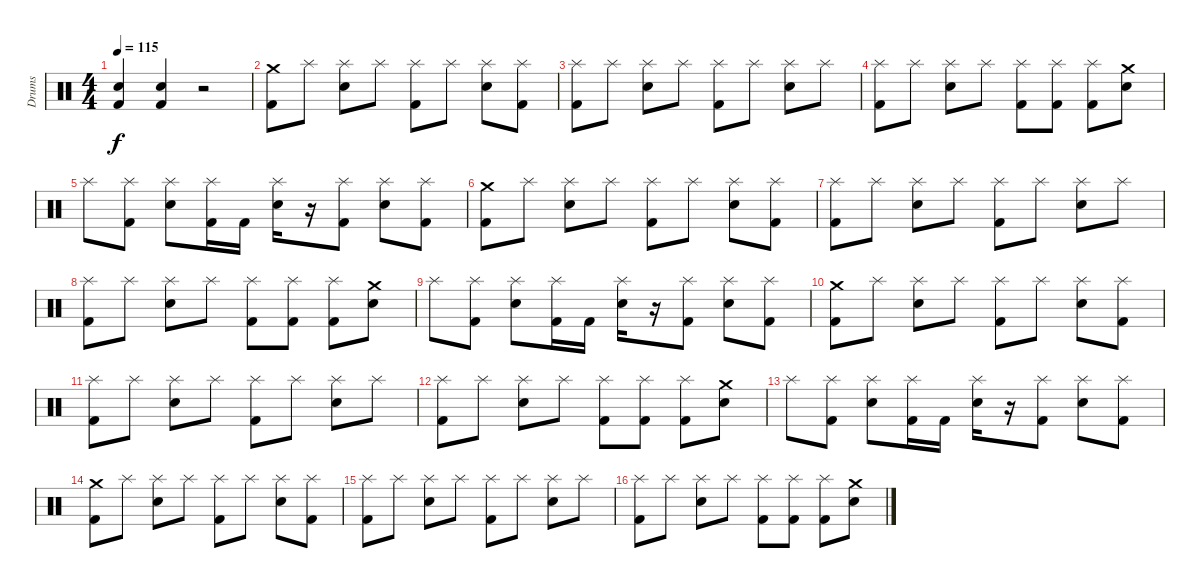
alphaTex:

\track ("Drums" "Drums") {instrument percussion}
\staff {score}
\articulation defaults
\ts (4 4)
\tempo 115
\clef neutral
\ks c
("Snare (hit) 2" "Kick (hit) 2").4{dy f} ("Snare (hit) 2" "Kick (hit) 2").4 r.2 |
("Crash medium (hit)" "Kick (hit) 2").8 "Splash (hit)".8 ("Splash (hit)" "Snare (hit) 2").8 "Splash (hit)".8 ("Splash (hit)" "Kick (hit) 2").8 "Splash (hit)".8 ("Splash (hit)" "Snare (hit) 2").8 ("Splash (hit)" "Kick (hit) 2").8 |
("Splash (hit)" "Kick (hit) 2").8 "Splash (hit)".8 ("Splash (hit)" "Snare (hit) 2").8 "Splash (hit)".8 ("Splash (hit)" "Kick (hit) 2").8 "Splash (hit)".8 ("Splash (hit)" "Snare (hit) 2").8 "Splash (hit)".8 |
("Splash (hit)" "Kick (hit) 2").8 "Splash (hit)".8 ("Splash (hit)" "Snare (hit) 2").8 "Splash (hit)".8 ("Splash (hit)" "Kick (hit) 2").8 ("Splash (hit)" "Kick (hit) 2").8 ("Splash (hit)" "Kick (hit) 2").8 ("Crash medium (hit)" "Snare (hit) 2").8 |
"Splash (hit)".8 ("Splash (hit)" "Kick (hit) 2").8 ("Splash (hit)" "Snare (hit) 2").8 ("Splash (hit)" "Kick (hit) 2").16 "Kick (hit) 2".16 ("Splash (hit)" "Snare (hit) 2").16 r.16 ("Splash (hit)" "Kick (hit) 2").8 ("Splash (hit)" "Snare (hit) 2").8 ("Splash (hit)" "Kick (hit) 2").8 |
("Crash medium (hit)" "Kick (hit) 2").8 "Splash (hit)".8 ("Splash (hit)" "Snare (hit) 2").8 "Splash (hit)".8 ("Splash (hit)" "Kick (hit) 2").8 "Splash (hit)".8 ("Splash (hit)" "Snare (hit) 2").8 ("Splash (hit)" "Kick (hit) 2").8 |
("Splash (hit)" "Kick (hit) 2").8 "Splash (hit)".8 ("Splash (hit)" "Snare (hit) 2").8 "Splash (hit)".8 ("Splash (hit)" "Kick (hit) 2").8 "Splash (hit)".8 ("Splash (hit)" "Snare (hit) 2").8 "Splash (hit)".8 |
("Splash (hit)" "Kick (hit) 2").8 "Splash (hit)".8 ("Splash (hit)" "Snare (hit) 2").8 "Splash (hit)".8 ("Splash (hit)" "Kick (hit) 2").8 ("Splash (hit)" "Kick (hit) 2").8 ("Splash (hit)" "Kick (hit) 2").8 ("Crash medium (hit)" "Snare (hit) 2").8 |
"Splash (hit)".8 ("Splash (hit)" "Kick (hit) 2").8 ("Splash (hit)" "Snare (hit) 2").8 ("Splash (hit)" "Kick (hit) 2").16 "Kick (hit) 2".16 ("Splash (hit)" "Snare (hit) 2").16 r.16 ("Splash (hit)" "Kick (hit) 2").8 ("Splash (hit)" "Snare (hit) 2").8 ("Splash (hit)" "Kick (hit) 2").8 |
("Crash medium (hit)" "Kick (hit) 2").8 "Splash (hit)".8 ("Splash (hit)" "Snare (hit) 2").8 "Splash (hit)".8 ("Splash (hit)" "Kick (hit) 2").8 "Splash (hit)".8 ("Splash (hit)" "Snare (hit) 2").8 ("Splash (hit)" "Kick (hit) 2").8 |
("Splash (hit)" "Kick (hit) 2").8 "Splash (hit)".8 ("Splash (hit)" "Snare (hit) 2").8 "Splash (hit)".8 ("Splash (hit)" "Kick (hit) 2").8 "Splash (hit)".8 ("Splash (hit)" "Snare (hit) 2").8 "Splash (hit)".8 |
("Splash (hit)" "Kick (hit) 2").8 "Splash (hit)".8 ("Splash (hit)" "Snare (hit) 2").8 "Splash (hit)".8 ("Splash (hit)" "Kick (hit) 2").8 ("Splash (hit)" "Kick (hit) 2").8 ("Splash (hit)" "Kick (hit) 2").8 ("Crash medium (hit)" "Snare (hit) 2").8 |
"Splash (hit)".8 ("Splash (hit)" "Kick (hit) 2").8 ("Splash (hit)" "Snare (hit) 2").8 ("Splash (hit)" "Kick (hit) 2").16 "Kick (hit) 2".16 ("Splash (hit)" "Snare (hit) 2").16 r.16 ("Splash (hit)" "Kick (hit) 2").8 ("Splash (hit)" "Snare (hit) 2").8 ("Splash (hit)" "Kick (hit) 2").8 |
("Crash medium (hit)" "Kick (hit) 2").8 "Splash (hit)".8 ("Splash (hit)" "Snare (hit) 2").8 "Splash (hit)".8 ("Splash (hit)" "Kick (hit) 2").8 "Splash (hit)".8 ("Splash (hit)" "Snare (hit) 2").8 ("Splash (hit)" "Kick (hit) 2").8 |
("Splash (hit)" "Kick (hit) 2").8 "Splash (hit)".8 ("Splash (hit)" "Snare (hit) 2").8 "Splash (hit)".8 ("Splash (hit)" "Kick (hit) 2").8 "Splash (hit)".8 ("Splash (hit)" "Snare (hit) 2").8 "Splash (hit)".8 |
("Splash (hit)" "Kick (hit) 2").8 "Splash (hit)".8 ("Splash (hit)" "Snare (hit) 2").8 "Splash (hit)".8 ("Splash (hit)" "Kick (hit) 2").8 ("Splash (hit)" "Kick (hit) 2").8 ("Splash (hit)" "Kick (hit) 2").8 ("Crash medium (hit)" "Snare (hit) 2").8
